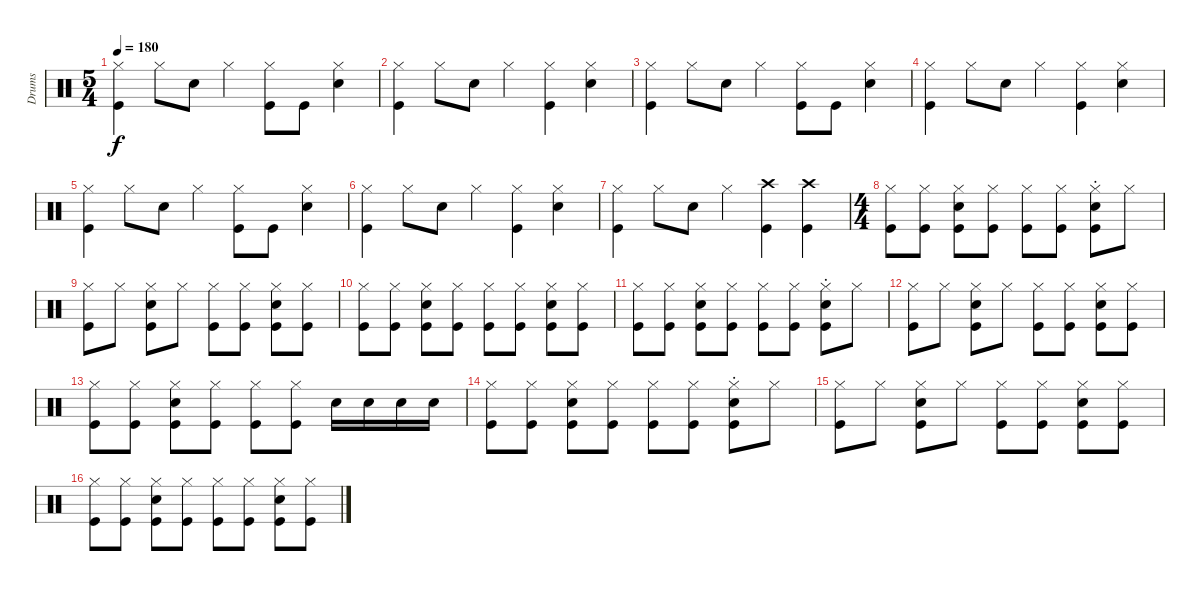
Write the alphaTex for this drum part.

\track ("Drums" "Drums") {instrument percussion}
\staff {score}
\articulation defaults
\ts (5 4)
\tempo 180
\clef neutral
\ks c
("Hi-Hat (closed)" "Kick (hit)").4{dy f} "Hi-Hat (closed)".8 "Snare (hit) 2".8 "Hi-Hat (closed)".4 ("Hi-Hat (closed)" "Kick (hit)").8 "Kick (hit)".8 ("Hi-Hat (closed)" "Snare (hit) 2").4 |
("Hi-Hat (closed)" "Kick (hit)").4 "Hi-Hat (closed)".8 "Snare (hit) 2".8 "Hi-Hat (closed)".4 ("Hi-Hat (closed)" "Kick (hit)").4 ("Hi-Hat (closed)" "Snare (hit) 2").4 |
("Hi-Hat (closed)" "Kick (hit)").4 "Hi-Hat (closed)".8 "Snare (hit) 2".8 "Hi-Hat (closed)".4 ("Hi-Hat (closed)" "Kick (hit)").8 "Kick (hit)".8 ("Hi-Hat (closed)" "Snare (hit) 2").4 |
("Hi-Hat (closed)" "Kick (hit)").4 "Hi-Hat (closed)".8 "Snare (hit) 2".8 "Hi-Hat (closed)".4 ("Hi-Hat (closed)" "Kick (hit)").4 ("Hi-Hat (closed)" "Snare (hit) 2").4 |
("Hi-Hat (closed)" "Kick (hit)").4 "Hi-Hat (closed)".8 "Snare (hit) 2".8 "Hi-Hat (closed)".4 ("Hi-Hat (closed)" "Kick (hit)").8 "Kick (hit)".8 ("Hi-Hat (closed)" "Snare (hit) 2").4 |
("Hi-Hat (closed)" "Kick (hit)").4 "Hi-Hat (closed)".8 "Snare (hit) 2".8 "Hi-Hat (closed)".4 ("Hi-Hat (closed)" "Kick (hit)").4 ("Hi-Hat (closed)" "Snare (hit) 2").4 |
("Hi-Hat (closed)" "Kick (hit)").4 "Hi-Hat (closed)".8 "Snare (hit) 2".8 "Hi-Hat (closed)".4 ("Crash high (hit)" "Kick (hit)").4 ("Crash high (hit)" "Kick (hit)").4 |
\ts (4 4)
("Hi-Hat (closed)" "Kick (hit)").8 ("Hi-Hat (closed)" "Kick (hit)").8 ("Hi-Hat (closed)" "Snare (hit) 2" "Kick (hit)").8 ("Hi-Hat (closed)" "Kick (hit)").8 ("Hi-Hat (closed)" "Kick (hit)").8 ("Hi-Hat (closed)" "Kick (hit)").8 ("Hi-Hat (closed)" "Snare (hit) 2"{st} "Kick (hit)").8 "Hi-Hat (closed)".8 |
("Hi-Hat (closed)" "Kick (hit)").8 "Hi-Hat (closed)".8 ("Hi-Hat (closed)" "Snare (hit) 2" "Kick (hit)").8 "Hi-Hat (closed)".8 ("Hi-Hat (closed)" "Kick (hit)").8 ("Hi-Hat (closed)" "Kick (hit)").8 ("Hi-Hat (closed)" "Snare (hit) 2" "Kick (hit)").8 ("Hi-Hat (closed)" "Kick (hit)").8 |
("Hi-Hat (closed)" "Kick (hit)").8 ("Hi-Hat (closed)" "Kick (hit)").8 ("Hi-Hat (closed)" "Snare (hit) 2" "Kick (hit)").8 ("Hi-Hat (closed)" "Kick (hit)").8 ("Hi-Hat (closed)" "Kick (hit)").8 ("Hi-Hat (closed)" "Kick (hit)").8 ("Hi-Hat (closed)" "Snare (hit) 2" "Kick (hit)").8 ("Hi-Hat (closed)" "Kick (hit)").8 |
("Hi-Hat (closed)" "Kick (hit)").8 ("Hi-Hat (closed)" "Kick (hit)").8 ("Hi-Hat (closed)" "Snare (hit) 2" "Kick (hit)").8 ("Hi-Hat (closed)" "Kick (hit)").8 ("Hi-Hat (closed)" "Kick (hit)").8 ("Hi-Hat (closed)" "Kick (hit)").8 ("Hi-Hat (closed)" "Snare (hit) 2"{st} "Kick (hit)").8 "Hi-Hat (closed)".8 |
("Hi-Hat (closed)" "Kick (hit)").8 "Hi-Hat (closed)".8 ("Hi-Hat (closed)" "Snare (hit) 2" "Kick (hit)").8 "Hi-Hat (closed)".8 ("Hi-Hat (closed)" "Kick (hit)").8 ("Hi-Hat (closed)" "Kick (hit)").8 ("Hi-Hat (closed)" "Snare (hit) 2" "Kick (hit)").8 ("Hi-Hat (closed)" "Kick (hit)").8 |
("Hi-Hat (closed)" "Kick (hit)").8 ("Hi-Hat (closed)" "Kick (hit)").8 ("Hi-Hat (closed)" "Snare (hit) 2" "Kick (hit)").8 ("Hi-Hat (closed)" "Kick (hit)").8 ("Hi-Hat (closed)" "Kick (hit)").8 ("Hi-Hat (closed)" "Kick (hit)").8 "Snare (hit) 2".16 "Snare (hit) 2".16 "Snare (hit) 2".16 "Snare (hit) 2".16 |
("Hi-Hat (closed)" "Kick (hit)").8 ("Hi-Hat (closed)" "Kick (hit)").8 ("Hi-Hat (closed)" "Snare (hit) 2" "Kick (hit)").8 ("Hi-Hat (closed)" "Kick (hit)").8 ("Hi-Hat (closed)" "Kick (hit)").8 ("Hi-Hat (closed)" "Kick (hit)").8 ("Hi-Hat (closed)" "Snare (hit) 2"{st} "Kick (hit)").8 "Hi-Hat (closed)".8 |
("Hi-Hat (closed)" "Kick (hit)").8 "Hi-Hat (closed)".8 ("Hi-Hat (closed)" "Snare (hit) 2" "Kick (hit)").8 "Hi-Hat (closed)".8 ("Hi-Hat (closed)" "Kick (hit)").8 ("Hi-Hat (closed)" "Kick (hit)").8 ("Hi-Hat (closed)" "Snare (hit) 2" "Kick (hit)").8 ("Hi-Hat (closed)" "Kick (hit)").8 |
("Hi-Hat (closed)" "Kick (hit)").8 ("Hi-Hat (closed)" "Kick (hit)").8 ("Hi-Hat (closed)" "Snare (hit) 2" "Kick (hit)").8 ("Hi-Hat (closed)" "Kick (hit)").8 ("Hi-Hat (closed)" "Kick (hit)").8 ("Hi-Hat (closed)" "Kick (hit)").8 ("Hi-Hat (closed)" "Snare (hit) 2" "Kick (hit)").8 ("Hi-Hat (closed)" "Kick (hit)").8
